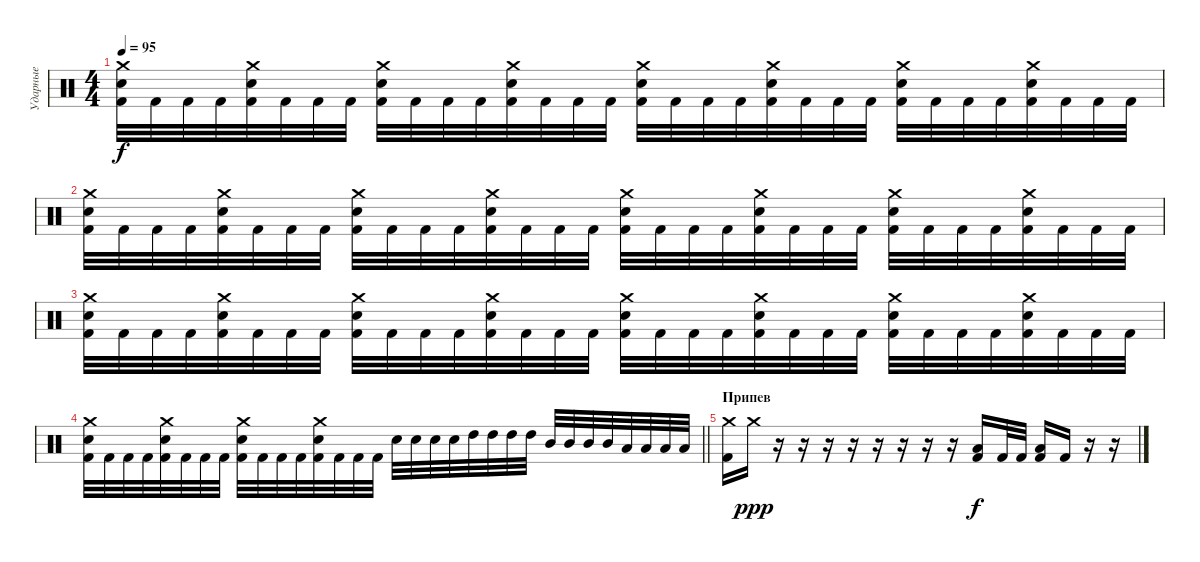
\track ("Ударные" "Ударные") {instrument percussion}
\staff {score}
\articulation defaults
\ts (4 4)
\tempo 95
\clef neutral
\ks c
("Crash medium (hit)" "Electric Snare (hit)" "Kick (hit) 2").32{dy f} "Kick (hit) 2".32 "Kick (hit) 2".32 "Kick (hit) 2".32 ("Crash medium (hit)" "Electric Snare (hit)" "Kick (hit) 2").32 "Kick (hit) 2".32 "Kick (hit) 2".32 "Kick (hit) 2".32 ("Crash medium (hit)" "Electric Snare (hit)" "Kick (hit) 2").32 "Kick (hit) 2".32 "Kick (hit) 2".32 "Kick (hit) 2".32 ("Crash medium (hit)" "Electric Snare (hit)" "Kick (hit) 2").32 "Kick (hit) 2".32 "Kick (hit) 2".32 "Kick (hit) 2".32 ("Crash medium (hit)" "Electric Snare (hit)" "Kick (hit) 2").32 "Kick (hit) 2".32 "Kick (hit) 2".32 "Kick (hit) 2".32 ("Crash medium (hit)" "Electric Snare (hit)" "Kick (hit) 2").32 "Kick (hit) 2".32 "Kick (hit) 2".32 "Kick (hit) 2".32 ("Crash medium (hit)" "Electric Snare (hit)" "Kick (hit) 2").32 "Kick (hit) 2".32 "Kick (hit) 2".32 "Kick (hit) 2".32 ("Crash medium (hit)" "Electric Snare (hit)" "Kick (hit) 2").32 "Kick (hit) 2".32 "Kick (hit) 2".32 "Kick (hit) 2".32 |
("Crash medium (hit)" "Electric Snare (hit)" "Kick (hit) 2").32 "Kick (hit) 2".32 "Kick (hit) 2".32 "Kick (hit) 2".32 ("Crash medium (hit)" "Electric Snare (hit)" "Kick (hit) 2").32 "Kick (hit) 2".32 "Kick (hit) 2".32 "Kick (hit) 2".32 ("Crash medium (hit)" "Electric Snare (hit)" "Kick (hit) 2").32 "Kick (hit) 2".32 "Kick (hit) 2".32 "Kick (hit) 2".32 ("Crash medium (hit)" "Electric Snare (hit)" "Kick (hit) 2").32 "Kick (hit) 2".32 "Kick (hit) 2".32 "Kick (hit) 2".32 ("Crash medium (hit)" "Electric Snare (hit)" "Kick (hit) 2").32 "Kick (hit) 2".32 "Kick (hit) 2".32 "Kick (hit) 2".32 ("Crash medium (hit)" "Electric Snare (hit)" "Kick (hit) 2").32 "Kick (hit) 2".32 "Kick (hit) 2".32 "Kick (hit) 2".32 ("Crash medium (hit)" "Electric Snare (hit)" "Kick (hit) 2").32 "Kick (hit) 2".32 "Kick (hit) 2".32 "Kick (hit) 2".32 ("Crash medium (hit)" "Electric Snare (hit)" "Kick (hit) 2").32 "Kick (hit) 2".32 "Kick (hit) 2".32 "Kick (hit) 2".32 |
("Crash medium (hit)" "Electric Snare (hit)" "Kick (hit) 2").32 "Kick (hit) 2".32 "Kick (hit) 2".32 "Kick (hit) 2".32 ("Crash medium (hit)" "Electric Snare (hit)" "Kick (hit) 2").32 "Kick (hit) 2".32 "Kick (hit) 2".32 "Kick (hit) 2".32 ("Crash medium (hit)" "Electric Snare (hit)" "Kick (hit) 2").32 "Kick (hit) 2".32 "Kick (hit) 2".32 "Kick (hit) 2".32 ("Crash medium (hit)" "Electric Snare (hit)" "Kick (hit) 2").32 "Kick (hit) 2".32 "Kick (hit) 2".32 "Kick (hit) 2".32 ("Crash medium (hit)" "Electric Snare (hit)" "Kick (hit) 2").32 "Kick (hit) 2".32 "Kick (hit) 2".32 "Kick (hit) 2".32 ("Crash medium (hit)" "Electric Snare (hit)" "Kick (hit) 2").32 "Kick (hit) 2".32 "Kick (hit) 2".32 "Kick (hit) 2".32 ("Crash medium (hit)" "Electric Snare (hit)" "Kick (hit) 2").32 "Kick (hit) 2".32 "Kick (hit) 2".32 "Kick (hit) 2".32 ("Crash medium (hit)" "Electric Snare (hit)" "Kick (hit) 2").32 "Kick (hit) 2".32 "Kick (hit) 2".32 "Kick (hit) 2".32 |
\barLineRight lightlight
("Crash medium (hit)" "Electric Snare (hit)" "Kick (hit) 2").32 "Kick (hit) 2".32 "Kick (hit) 2".32 "Kick (hit) 2".32 ("Crash medium (hit)" "Electric Snare (hit)" "Kick (hit) 2").32 "Kick (hit) 2".32 "Kick (hit) 2".32 "Kick (hit) 2".32 ("Crash medium (hit)" "Electric Snare (hit)" "Kick (hit) 2").32 "Kick (hit) 2".32 "Kick (hit) 2".32 "Kick (hit) 2".32 ("Crash medium (hit)" "Electric Snare (hit)" "Kick (hit) 2").32 "Kick (hit) 2".32 "Kick (hit) 2".32 "Kick (hit) 2".32 "Electric Snare (hit)".32 "Electric Snare (hit)".32 "Electric Snare (hit)".32 "Electric Snare (hit)".32 "High Tom (hit)".32 "High Tom (hit)".32 "High Tom (hit)".32 "High Tom (hit)".32 "Mid Tom (hit)".32 "Mid Tom (hit)".32 "Mid Tom (hit)".32 "Mid Tom (hit)".32 "Low Tom (hit)".32 "Low Tom (hit)".32 "Low Tom (hit)".32 "Low Tom (hit)".32 |
\section ("" "Припев")
("Crash medium (hit)" "Kick (hit) 2").16 "Crash medium (hit)".16{dy ppp} r.16 r.16 r.16 r.16 r.16 r.16 r.16 r.16 ("Low Floor Tom (hit)" "Kick (hit) 2").16{dy f} "Kick (hit) 2".32 "Kick (hit) 2".32 ("Low Tom (hit)" "Kick (hit) 2").16 "Kick (hit) 2".16 r.16 r.16
